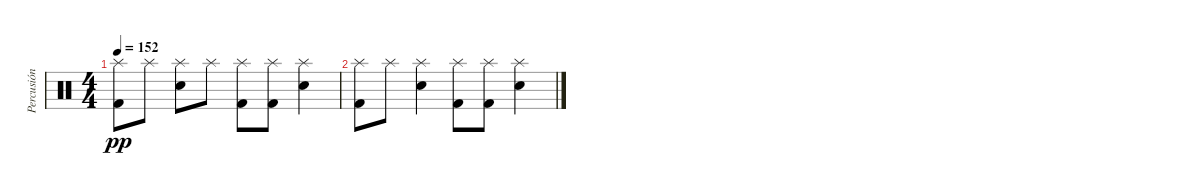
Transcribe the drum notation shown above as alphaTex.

\track ("Percusión" "Percusión") {instrument percussion}
\staff {score}
\articulation defaults
\ts (4 4)
\tempo 152
\clef neutral
\ks c
("Kick (hit) 2" "Splash (hit)").8{dy pp} "Splash (hit)".8 ("Snare (hit) 2" "Splash (hit)").8 "Splash (hit)".8 ("Kick (hit) 2" "Splash (hit)").8 ("Kick (hit) 2" "Splash (hit)").8 ("Snare (hit) 2" "Splash (hit)").4 |
("Kick (hit) 2" "Splash (hit)").8 "Splash (hit)".8 ("Snare (hit) 2" "Splash (hit)").4 ("Kick (hit) 2" "Splash (hit)").8 ("Kick (hit) 2" "Splash (hit)").8 ("Snare (hit) 2" "Splash (hit)").4
